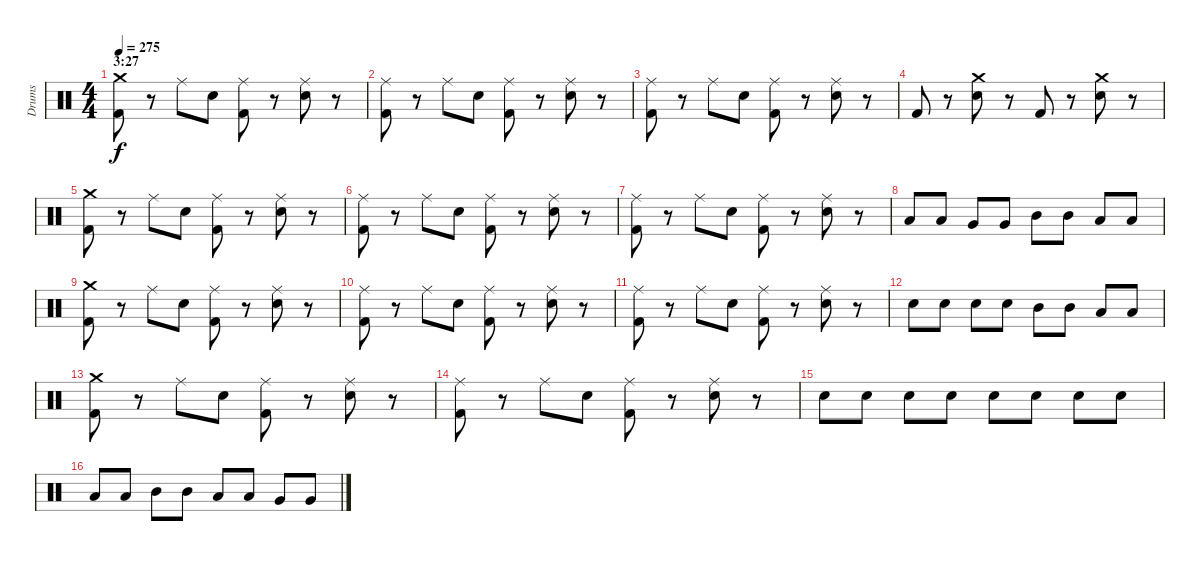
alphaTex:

\track ("Drums" "Drums") {instrument percussion}
\staff {score}
\articulation defaults
\ts (4 4)
\section ("" "3:27")
\tempo 275
\clef neutral
\ks c
("Crash medium (hit)" "Kick (hit) 2").8{dy f} r.8 "Ride (middle)".8 "Electric Snare (hit)".8 ("Ride (middle)" "Kick (hit) 2").8 r.8 ("Ride (middle)" "Electric Snare (hit)").8 r.8 |
("Ride (middle)" "Kick (hit) 2").8 r.8 "Ride (middle)".8 "Electric Snare (hit)".8 ("Ride (middle)" "Kick (hit) 2").8 r.8 ("Ride (middle)" "Electric Snare (hit)").8 r.8 |
("Ride (middle)" "Kick (hit) 2").8 r.8 "Ride (middle)".8 "Electric Snare (hit)".8 ("Ride (middle)" "Kick (hit) 2").8 r.8 ("Ride (middle)" "Electric Snare (hit)").8 r.8 |
"Kick (hit) 2".8 r.8 ("Crash medium (hit)" "Electric Snare (hit)").8 r.8 "Kick (hit) 2".8 r.8 ("Crash medium (hit)" "Electric Snare (hit)").8 r.8 |
("Crash medium (hit)" "Kick (hit) 2").8 r.8 "Ride (middle)".8 "Electric Snare (hit)".8 ("Ride (middle)" "Kick (hit) 2").8 r.8 ("Ride (middle)" "Electric Snare (hit)").8 r.8 |
("Ride (middle)" "Kick (hit) 2").8 r.8 "Ride (middle)".8 "Electric Snare (hit)".8 ("Ride (middle)" "Kick (hit) 2").8 r.8 ("Ride (middle)" "Electric Snare (hit)").8 r.8 |
("Ride (middle)" "Kick (hit) 2").8 r.8 "Ride (middle)".8 "Electric Snare (hit)".8 ("Ride (middle)" "Kick (hit) 2").8 r.8 ("Ride (middle)" "Electric Snare (hit)").8 r.8 |
"Low Tom (hit)".8 "Low Tom (hit)".8 "Very Low Tom (hit)".8 "Very Low Tom (hit)".8 "Mid Tom (hit)".8 "Mid Tom (hit)".8 "Low Tom (hit)".8 "Low Tom (hit)".8 |
("Crash medium (hit)" "Kick (hit) 2").8 r.8 "Ride (middle)".8 "Electric Snare (hit)".8 ("Ride (middle)" "Kick (hit) 2").8 r.8 ("Ride (middle)" "Electric Snare (hit)").8 r.8 |
("Ride (middle)" "Kick (hit) 2").8 r.8 "Ride (middle)".8 "Electric Snare (hit)".8 ("Ride (middle)" "Kick (hit) 2").8 r.8 ("Ride (middle)" "Electric Snare (hit)").8 r.8 |
("Ride (middle)" "Kick (hit) 2").8 r.8 "Ride (middle)".8 "Electric Snare (hit)".8 ("Ride (middle)" "Kick (hit) 2").8 r.8 ("Ride (middle)" "Electric Snare (hit)").8 r.8 |
"Electric Snare (hit)".8 "Electric Snare (hit)".8 "Electric Snare (hit)".8 "Electric Snare (hit)".8 "Mid Tom (hit)".8 "Mid Tom (hit)".8 "Low Tom (hit)".8 "Low Tom (hit)".8 |
("Crash medium (hit)" "Kick (hit) 2").8 r.8 "Ride (middle)".8 "Electric Snare (hit)".8 ("Ride (middle)" "Kick (hit) 2").8 r.8 ("Ride (middle)" "Electric Snare (hit)").8 r.8 |
("Ride (middle)" "Kick (hit) 2").8 r.8 "Ride (middle)".8 "Electric Snare (hit)".8 ("Ride (middle)" "Kick (hit) 2").8 r.8 ("Ride (middle)" "Electric Snare (hit)").8 r.8 |
"Electric Snare (hit)".8 "Electric Snare (hit)".8 "Electric Snare (hit)".8 "Electric Snare (hit)".8 "Electric Snare (hit)".8 "Electric Snare (hit)".8 "Electric Snare (hit)".8 "Electric Snare (hit)".8 |
"Low Tom (hit)".8 "Low Tom (hit)".8 "Mid Tom (hit)".8 "Mid Tom (hit)".8 "Low Tom (hit)".8 "Low Tom (hit)".8 "Very Low Tom (hit)".8 "Very Low Tom (hit)".8
